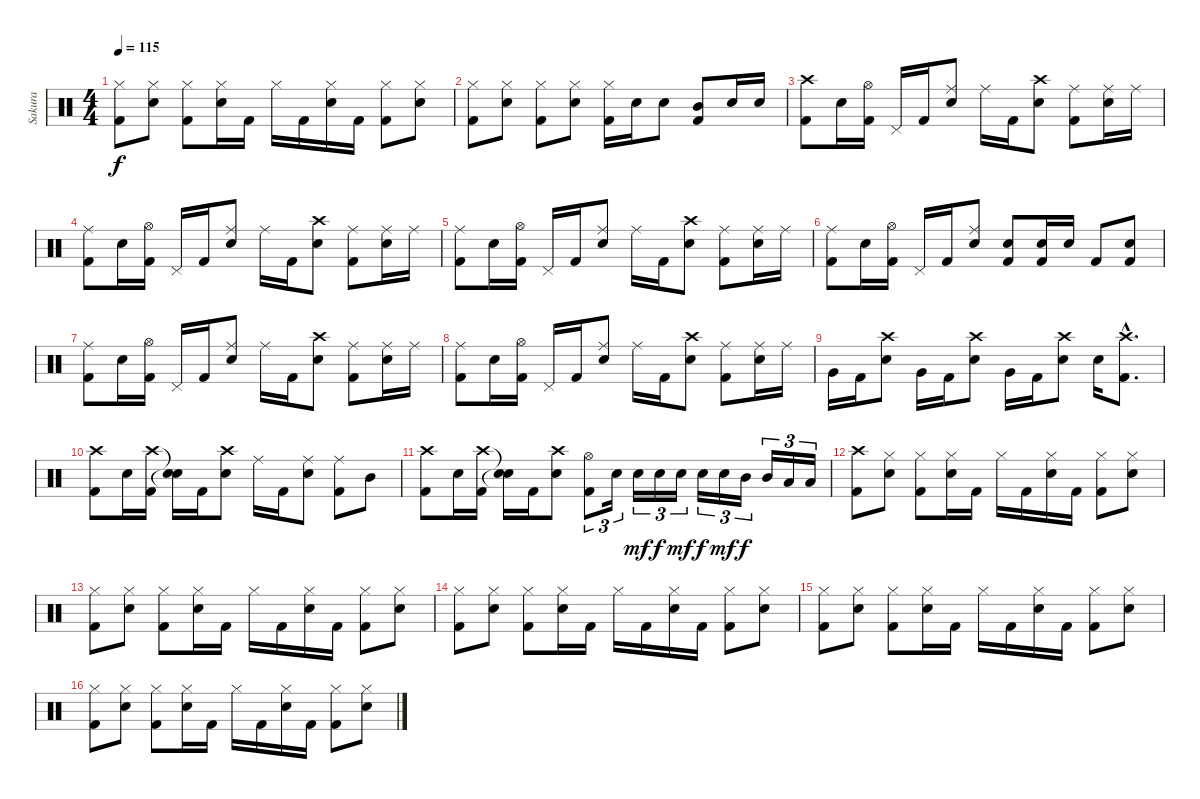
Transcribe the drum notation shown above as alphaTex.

\track ("Sakura" "Sakura") {instrument percussion}
\staff {score}
\articulation defaults
\ts (4 4)
\tempo 115
\clef neutral
\ks c
("Hi-Hat (closed)" "Kick (hit) 2").8{dy f} ("Hi-Hat (closed)" "Electric Snare (hit)").8 ("Hi-Hat (closed)" "Kick (hit) 2").8 ("Hi-Hat (closed)" "Electric Snare (hit)").16 "Kick (hit) 2".16 "Hi-Hat (closed)".16 "Kick (hit) 2".16 ("Hi-Hat (closed)" "Electric Snare (hit)").16 "Kick (hit) 2".16 ("Hi-Hat (closed)" "Kick (hit) 2").8 ("Hi-Hat (closed)" "Electric Snare (hit)").8 |
("Hi-Hat (closed)" "Kick (hit) 2").8 ("Hi-Hat (closed)" "Electric Snare (hit)").8 ("Hi-Hat (closed)" "Kick (hit) 2").8 ("Hi-Hat (closed)" "Electric Snare (hit)").8 ("Hi-Hat (closed)" "Kick (hit) 2").16 "Electric Snare (hit)".16 "Electric Snare (hit)".8 ("Mid Tom (hit)" "Kick (hit) 2").8 "Electric Snare (hit)".16 "Electric Snare (hit)".16 |
("Crash high (hit)" "Kick (hit) 2").8 "Electric Snare (hit)".16 ("Hi-Hat (open)" "Kick (hit) 2").16 "Pedal Hi-Hat (hit)".16 "Kick (hit) 2".16 ("Ride (middle)" "Electric Snare (hit)").8 "Ride (middle)".16 "Kick (hit) 2".16 ("Crash high (hit)" "Electric Snare (hit)").8 ("Ride (middle)" "Kick (hit) 2").8 ("Ride (middle)" "Electric Snare (hit)").16 "Ride (middle)".16 |
("Ride (middle)" "Kick (hit) 2").8 "Electric Snare (hit)".16 ("Hi-Hat (open)" "Kick (hit) 2").16 "Pedal Hi-Hat (hit)".16 "Kick (hit) 2".16 ("Ride (middle)" "Electric Snare (hit)").8 "Ride (middle)".16 "Kick (hit) 2".16 ("Crash high (hit)" "Electric Snare (hit)").8 ("Ride (middle)" "Kick (hit) 2").8 ("Ride (middle)" "Electric Snare (hit)").16 "Ride (middle)".16 |
("Ride (middle)" "Kick (hit) 2").8 "Electric Snare (hit)".16 ("Hi-Hat (open)" "Kick (hit) 2").16 "Pedal Hi-Hat (hit)".16 "Kick (hit) 2".16 ("Ride (middle)" "Electric Snare (hit)").8 "Ride (middle)".16 "Kick (hit) 2".16 ("Crash high (hit)" "Electric Snare (hit)").8 ("Ride (middle)" "Kick (hit) 2").8 ("Ride (middle)" "Electric Snare (hit)").16 "Ride (middle)".16 |
("Ride (middle)" "Kick (hit) 2").8 "Electric Snare (hit)".16 ("Hi-Hat (open)" "Kick (hit) 2").16 "Pedal Hi-Hat (hit)".16 "Kick (hit) 2".16 ("Ride (middle)" "Electric Snare (hit)").8 ("Electric Snare (hit)" "Kick (hit) 2").8 ("Electric Snare (hit)" "Kick (hit) 2").16 "Electric Snare (hit)".16 "Kick (hit) 2".8 ("Electric Snare (hit)" "Kick (hit) 2").8 |
("Ride (middle)" "Kick (hit) 2").8 "Electric Snare (hit)".16 ("Hi-Hat (open)" "Kick (hit) 2").16 "Pedal Hi-Hat (hit)".16 "Kick (hit) 2".16 ("Ride (middle)" "Electric Snare (hit)").8 "Ride (middle)".16 "Kick (hit) 2".16 ("Crash high (hit)" "Electric Snare (hit)").8 ("Ride (middle)" "Kick (hit) 2").8 ("Ride (middle)" "Electric Snare (hit)").16 "Ride (middle)".16 |
("Ride (middle)" "Kick (hit) 2").8 "Electric Snare (hit)".16 ("Hi-Hat (open)" "Kick (hit) 2").16 "Pedal Hi-Hat (hit)".16 "Kick (hit) 2".16 ("Ride (middle)" "Electric Snare (hit)").8 "Ride (middle)".16 "Kick (hit) 2".16 ("Crash high (hit)" "Electric Snare (hit)").8 ("Ride (middle)" "Kick (hit) 2").8 ("Ride (middle)" "Electric Snare (hit)").16 "Ride (middle)".16 |
"Very Low Tom (hit)".16 "Kick (hit) 2".16 ("Crash high (hit)" "Electric Snare (hit)").8 "Very Low Tom (hit)".16 "Kick (hit) 2".16 ("Crash high (hit)" "Electric Snare (hit)").8 "Very Low Tom (hit)".16 "Kick (hit) 2".16 ("Crash high (hit)" "Electric Snare (hit)").8 "Electric Snare (hit)".16 ("Crash high (hit)"{hac} "Kick (hit) 2"{hac}).8{d} |
("Crash high (hit)" "Kick (hit) 2").8 "Electric Snare (hit)".16 ("Crash high (hit)" "Kick (hit) 2").16 ("Snare (hit)"{t} "Snare (hit)"{t}).16 "Kick (hit) 2".16 ("Crash high (hit)" "Electric Snare (hit)").8 "Ride (middle)".16 "Kick (hit) 2".16 ("Ride (middle)" "Electric Snare (hit)").8 ("Ride (middle)" "Kick (hit) 2").8 "Mid Tom (hit)".8 |
("Crash high (hit)" "Kick (hit) 2").8 "Electric Snare (hit)".16 ("Crash high (hit)" "Kick (hit) 2").16 ("Snare (hit)"{t} "Snare (hit)"{t}).16 "Kick (hit) 2".16 ("Crash high (hit)" "Electric Snare (hit)").8 ("Hi-Hat (open)" "Kick (hit) 2").8{tu (3 2)} "Snare (hit) 2".16{tu (3 2)} "Snare (hit) 2".16{tu (3 2) dy mf} "Snare (hit) 2".16{tu (3 2) dy f} "Snare (hit) 2".16{tu (3 2) dy mf} "Snare (hit) 2".16{tu (3 2) dy f} "Snare (hit) 2".16{tu (3 2) dy mf} "Mid Tom (hit)".16{tu (3 2) dy f} "Mid Tom (hit)".16{tu (3 2)} "Low Tom (hit)".16{tu (3 2)} "Low Tom (hit)".16{tu (3 2)} |
("Crash high (hit)" "Kick (hit) 2").8 ("Hi-Hat (closed)" "Electric Snare (hit)").8 ("Hi-Hat (closed)" "Kick (hit) 2").8 ("Hi-Hat (closed)" "Electric Snare (hit)").16 "Kick (hit) 2".16 "Hi-Hat (closed)".16 "Kick (hit) 2".16 ("Hi-Hat (closed)" "Electric Snare (hit)").16 "Kick (hit) 2".16 ("Hi-Hat (closed)" "Kick (hit) 2").8 ("Hi-Hat (closed)" "Electric Snare (hit)").8 |
("Hi-Hat (closed)" "Kick (hit) 2").8 ("Hi-Hat (closed)" "Electric Snare (hit)").8 ("Hi-Hat (closed)" "Kick (hit) 2").8 ("Hi-Hat (closed)" "Electric Snare (hit)").16 "Kick (hit) 2".16 "Hi-Hat (closed)".16 "Kick (hit) 2".16 ("Hi-Hat (closed)" "Electric Snare (hit)").16 "Kick (hit) 2".16 ("Hi-Hat (closed)" "Kick (hit) 2").8 ("Hi-Hat (closed)" "Electric Snare (hit)").8 |
("Hi-Hat (closed)" "Kick (hit) 2").8 ("Hi-Hat (closed)" "Electric Snare (hit)").8 ("Hi-Hat (closed)" "Kick (hit) 2").8 ("Hi-Hat (closed)" "Electric Snare (hit)").16 "Kick (hit) 2".16 "Hi-Hat (closed)".16 "Kick (hit) 2".16 ("Hi-Hat (closed)" "Electric Snare (hit)").16 "Kick (hit) 2".16 ("Hi-Hat (closed)" "Kick (hit) 2").8 ("Hi-Hat (closed)" "Electric Snare (hit)").8 |
("Hi-Hat (closed)" "Kick (hit) 2").8 ("Hi-Hat (closed)" "Electric Snare (hit)").8 ("Hi-Hat (closed)" "Kick (hit) 2").8 ("Hi-Hat (closed)" "Electric Snare (hit)").16 "Kick (hit) 2".16 "Hi-Hat (closed)".16 "Kick (hit) 2".16 ("Hi-Hat (closed)" "Electric Snare (hit)").16 "Kick (hit) 2".16 ("Hi-Hat (closed)" "Kick (hit) 2").8 ("Hi-Hat (closed)" "Electric Snare (hit)").8 |
("Hi-Hat (closed)" "Kick (hit) 2").8 ("Hi-Hat (closed)" "Electric Snare (hit)").8 ("Hi-Hat (closed)" "Kick (hit) 2").8 ("Hi-Hat (closed)" "Electric Snare (hit)").16 "Kick (hit) 2".16 "Hi-Hat (closed)".16 "Kick (hit) 2".16 ("Hi-Hat (closed)" "Electric Snare (hit)").16 "Kick (hit) 2".16 ("Hi-Hat (closed)" "Kick (hit) 2").8 ("Hi-Hat (closed)" "Electric Snare (hit)").8
